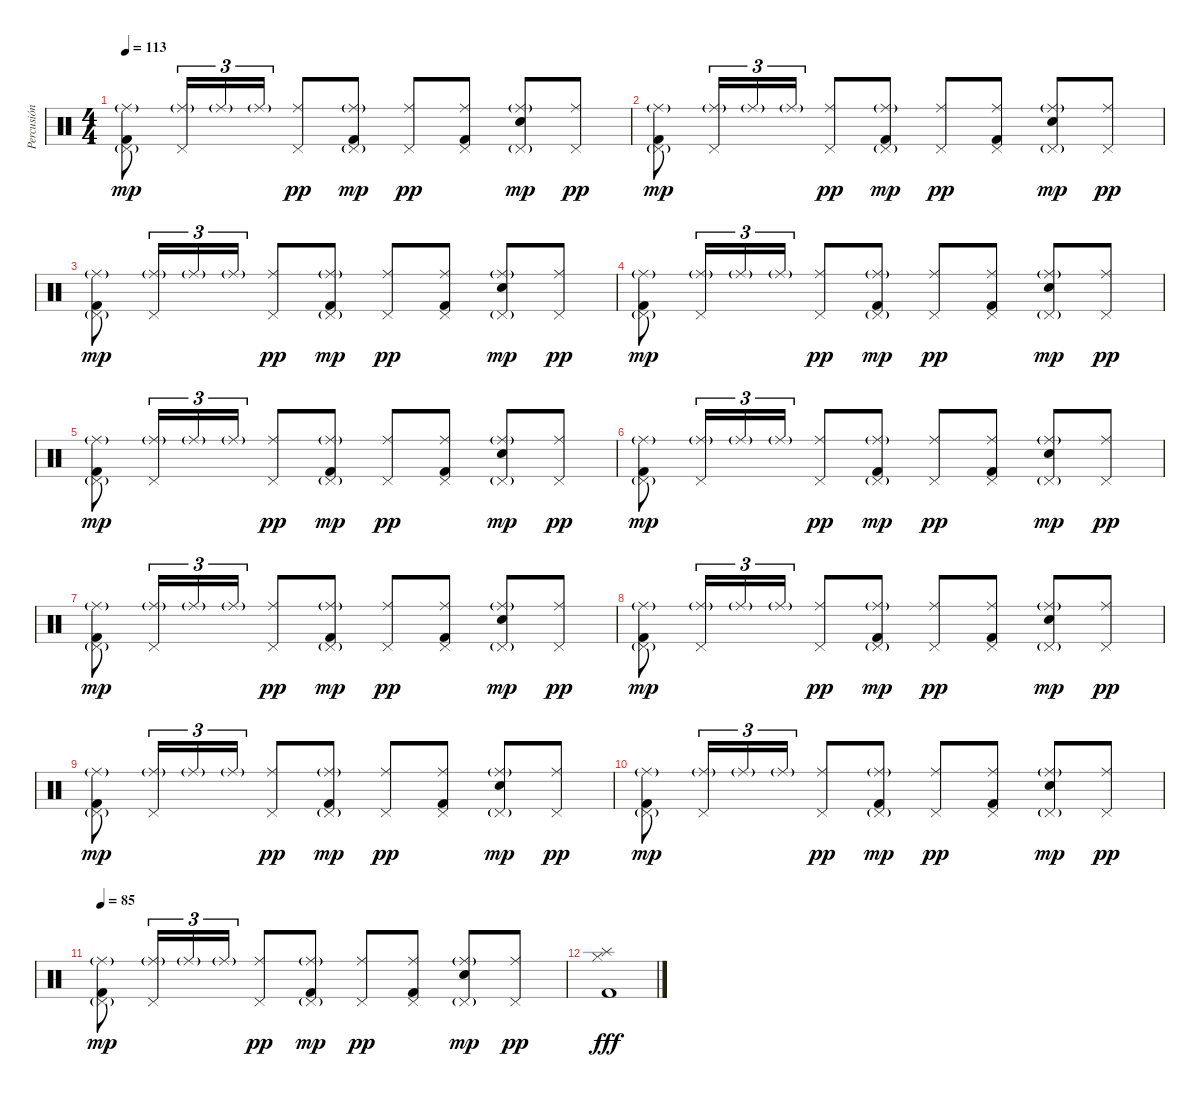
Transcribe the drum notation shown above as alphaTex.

\track ("Percusión" "Percusión") {instrument percussion}
\staff {score}
\articulation defaults
\ts (4 4)
\tempo 113
\clef neutral
\ks c
("Kick (hit) 2" "Pedal Hi-Hat (hit)"{g} "Ride (middle)"{g}).8{dy mp} ("Pedal Hi-Hat (hit)" "Ride (middle)"{g}).16{tu (3 2)} "Ride (middle)"{g}.16{tu (3 2)} "Ride (middle)"{g}.16{tu (3 2)} ("Pedal Hi-Hat (hit)" "Ride (middle)").8{dy pp} ("Kick (hit) 2" "Pedal Hi-Hat (hit)"{g} "Ride (middle)"{g}).8{dy mp} ("Pedal Hi-Hat (hit)" "Ride (middle)").8{dy pp} ("Kick (hit) 2" "Pedal Hi-Hat (hit)" "Ride (middle)").8 ("Snare (hit) 2" "Pedal Hi-Hat (hit)"{g} "Ride (middle)"{g}).8{dy mp} ("Pedal Hi-Hat (hit)" "Ride (middle)").8{dy pp} |
("Kick (hit) 2" "Pedal Hi-Hat (hit)"{g} "Ride (middle)"{g}).8{dy mp} ("Pedal Hi-Hat (hit)" "Ride (middle)"{g}).16{tu (3 2)} "Ride (middle)"{g}.16{tu (3 2)} "Ride (middle)"{g}.16{tu (3 2)} ("Pedal Hi-Hat (hit)" "Ride (middle)").8{dy pp} ("Kick (hit) 2" "Pedal Hi-Hat (hit)"{g} "Ride (middle)"{g}).8{dy mp} ("Pedal Hi-Hat (hit)" "Ride (middle)").8{dy pp} ("Kick (hit) 2" "Pedal Hi-Hat (hit)" "Ride (middle)").8 ("Snare (hit) 2" "Pedal Hi-Hat (hit)"{g} "Ride (middle)"{g}).8{dy mp} ("Pedal Hi-Hat (hit)" "Ride (middle)").8{dy pp} |
("Kick (hit) 2" "Pedal Hi-Hat (hit)"{g} "Ride (middle)"{g}).8{dy mp} ("Pedal Hi-Hat (hit)" "Ride (middle)"{g}).16{tu (3 2)} "Ride (middle)"{g}.16{tu (3 2)} "Ride (middle)"{g}.16{tu (3 2)} ("Pedal Hi-Hat (hit)" "Ride (middle)").8{dy pp} ("Kick (hit) 2" "Pedal Hi-Hat (hit)"{g} "Ride (middle)"{g}).8{dy mp} ("Pedal Hi-Hat (hit)" "Ride (middle)").8{dy pp} ("Kick (hit) 2" "Pedal Hi-Hat (hit)" "Ride (middle)").8 ("Snare (hit) 2" "Pedal Hi-Hat (hit)"{g} "Ride (middle)"{g}).8{dy mp} ("Pedal Hi-Hat (hit)" "Ride (middle)").8{dy pp} |
("Kick (hit) 2" "Pedal Hi-Hat (hit)"{g} "Ride (middle)"{g}).8{dy mp} ("Pedal Hi-Hat (hit)" "Ride (middle)"{g}).16{tu (3 2)} "Ride (middle)"{g}.16{tu (3 2)} "Ride (middle)"{g}.16{tu (3 2)} ("Pedal Hi-Hat (hit)" "Ride (middle)").8{dy pp} ("Kick (hit) 2" "Pedal Hi-Hat (hit)"{g} "Ride (middle)"{g}).8{dy mp} ("Pedal Hi-Hat (hit)" "Ride (middle)").8{dy pp} ("Kick (hit) 2" "Pedal Hi-Hat (hit)" "Ride (middle)").8 ("Snare (hit) 2" "Pedal Hi-Hat (hit)"{g} "Ride (middle)"{g}).8{dy mp} ("Pedal Hi-Hat (hit)" "Ride (middle)").8{dy pp} |
("Kick (hit) 2" "Pedal Hi-Hat (hit)"{g} "Ride (middle)"{g}).8{dy mp} ("Pedal Hi-Hat (hit)" "Ride (middle)"{g}).16{tu (3 2)} "Ride (middle)"{g}.16{tu (3 2)} "Ride (middle)"{g}.16{tu (3 2)} ("Pedal Hi-Hat (hit)" "Ride (middle)").8{dy pp} ("Kick (hit) 2" "Pedal Hi-Hat (hit)"{g} "Ride (middle)"{g}).8{dy mp} ("Pedal Hi-Hat (hit)" "Ride (middle)").8{dy pp} ("Kick (hit) 2" "Pedal Hi-Hat (hit)" "Ride (middle)").8 ("Snare (hit) 2" "Pedal Hi-Hat (hit)"{g} "Ride (middle)"{g}).8{dy mp} ("Pedal Hi-Hat (hit)" "Ride (middle)").8{dy pp} |
("Kick (hit) 2" "Pedal Hi-Hat (hit)"{g} "Ride (middle)"{g}).8{dy mp} ("Pedal Hi-Hat (hit)" "Ride (middle)"{g}).16{tu (3 2)} "Ride (middle)"{g}.16{tu (3 2)} "Ride (middle)"{g}.16{tu (3 2)} ("Pedal Hi-Hat (hit)" "Ride (middle)").8{dy pp} ("Kick (hit) 2" "Pedal Hi-Hat (hit)"{g} "Ride (middle)"{g}).8{dy mp} ("Pedal Hi-Hat (hit)" "Ride (middle)").8{dy pp} ("Kick (hit) 2" "Pedal Hi-Hat (hit)" "Ride (middle)").8 ("Snare (hit) 2" "Pedal Hi-Hat (hit)"{g} "Ride (middle)"{g}).8{dy mp} ("Pedal Hi-Hat (hit)" "Ride (middle)").8{dy pp} |
("Kick (hit) 2" "Pedal Hi-Hat (hit)"{g} "Ride (middle)"{g}).8{dy mp} ("Pedal Hi-Hat (hit)" "Ride (middle)"{g}).16{tu (3 2)} "Ride (middle)"{g}.16{tu (3 2)} "Ride (middle)"{g}.16{tu (3 2)} ("Pedal Hi-Hat (hit)" "Ride (middle)").8{dy pp} ("Kick (hit) 2" "Pedal Hi-Hat (hit)"{g} "Ride (middle)"{g}).8{dy mp} ("Pedal Hi-Hat (hit)" "Ride (middle)").8{dy pp} ("Kick (hit) 2" "Pedal Hi-Hat (hit)" "Ride (middle)").8 ("Snare (hit) 2" "Pedal Hi-Hat (hit)"{g} "Ride (middle)"{g}).8{dy mp} ("Pedal Hi-Hat (hit)" "Ride (middle)").8{dy pp} |
("Kick (hit) 2" "Pedal Hi-Hat (hit)"{g} "Ride (middle)"{g}).8{dy mp} ("Pedal Hi-Hat (hit)" "Ride (middle)"{g}).16{tu (3 2)} "Ride (middle)"{g}.16{tu (3 2)} "Ride (middle)"{g}.16{tu (3 2)} ("Pedal Hi-Hat (hit)" "Ride (middle)").8{dy pp} ("Kick (hit) 2" "Pedal Hi-Hat (hit)"{g} "Ride (middle)"{g}).8{dy mp} ("Pedal Hi-Hat (hit)" "Ride (middle)").8{dy pp} ("Kick (hit) 2" "Pedal Hi-Hat (hit)" "Ride (middle)").8 ("Snare (hit) 2" "Pedal Hi-Hat (hit)"{g} "Ride (middle)"{g}).8{dy mp} ("Pedal Hi-Hat (hit)" "Ride (middle)").8{dy pp} |
("Kick (hit) 2" "Pedal Hi-Hat (hit)"{g} "Ride (middle)"{g}).8{dy mp} ("Pedal Hi-Hat (hit)" "Ride (middle)"{g}).16{tu (3 2)} "Ride (middle)"{g}.16{tu (3 2)} "Ride (middle)"{g}.16{tu (3 2)} ("Pedal Hi-Hat (hit)" "Ride (middle)").8{dy pp} ("Kick (hit) 2" "Pedal Hi-Hat (hit)"{g} "Ride (middle)"{g}).8{dy mp} ("Pedal Hi-Hat (hit)" "Ride (middle)").8{dy pp} ("Kick (hit) 2" "Pedal Hi-Hat (hit)" "Ride (middle)").8 ("Snare (hit) 2" "Pedal Hi-Hat (hit)"{g} "Ride (middle)"{g}).8{dy mp} ("Pedal Hi-Hat (hit)" "Ride (middle)").8{dy pp} |
("Kick (hit) 2" "Pedal Hi-Hat (hit)"{g} "Ride (middle)"{g}).8{dy mp} ("Pedal Hi-Hat (hit)" "Ride (middle)"{g}).16{tu (3 2)} "Ride (middle)"{g}.16{tu (3 2)} "Ride (middle)"{g}.16{tu (3 2)} ("Pedal Hi-Hat (hit)" "Ride (middle)").8{dy pp} ("Kick (hit) 2" "Pedal Hi-Hat (hit)"{g} "Ride (middle)"{g}).8{dy mp} ("Pedal Hi-Hat (hit)" "Ride (middle)").8{dy pp} ("Kick (hit) 2" "Pedal Hi-Hat (hit)" "Ride (middle)").8 ("Snare (hit) 2" "Pedal Hi-Hat (hit)"{g} "Ride (middle)"{g}).8{dy mp} ("Pedal Hi-Hat (hit)" "Ride (middle)").8{dy pp} |
\tempo 85
("Kick (hit) 2" "Pedal Hi-Hat (hit)"{g} "Ride (middle)"{g}).8{dy mp} ("Pedal Hi-Hat (hit)" "Ride (middle)"{g}).16{tu (3 2)} "Ride (middle)"{g}.16{tu (3 2)} "Ride (middle)"{g}.16{tu (3 2)} ("Pedal Hi-Hat (hit)" "Ride (middle)").8{dy pp} ("Kick (hit) 2" "Pedal Hi-Hat (hit)"{g} "Ride (middle)"{g}).8{dy mp} ("Pedal Hi-Hat (hit)" "Ride (middle)").8{dy pp} ("Kick (hit) 2" "Pedal Hi-Hat (hit)" "Ride (middle)").8 ("Snare (hit) 2" "Pedal Hi-Hat (hit)"{g} "Ride (middle)"{g}).8{dy mp} ("Pedal Hi-Hat (hit)" "Ride (middle)").8{dy pp} |
("Kick (hit) 2" "Splash (hit)" "Hi-Hat (closed)").1{dy fff}
